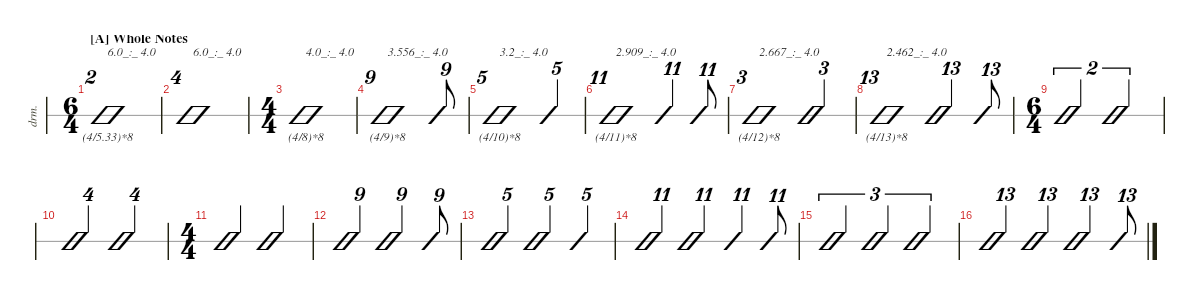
\defaultSystemsLayout 4
\hideDynamics
\bracketExtendMode nobrackets
\otherSystemsTrackNameOrientation horizontal
\track ("Drumkit" "drm.") {defaultSystemsLayout 8 instrument percussion}
\staff {slash}
\articulation defaults
\ts (6 4)
\beaming (8 6 6)
\section ("A" "Whole Notes")
\tempo (120 hide)
\clef neutral
\scale
1.11305
\ks c "Kick (hit) 2".1{tu (2 3) txt "6.0_:_ 4.0" lyrics (0 "(4/5.33)*8") lyrics (1 "") lyrics (2 "") lyrics (3 "") lyrics (4 "") dy mf}
|
\scale
0.962316 "Kick (hit) 2".1{tu (4 6) txt "6.0_:_ 4.0"} |
\ts (4 4)
\beaming (8 2 2 2 2)
\scale
1.11305 "Kick (hit) 2".1{txt "4.0_:_ 4.0" lyrics (0 "(4/8)*8") lyrics (1 "") lyrics (2 "") lyrics (3 "") lyrics (4 "")} |
\scale
0.962316 "Kick (hit) 2".1{tu (9 8) txt "3.556_:_ 4.0" lyrics (0 "(4/9)*8") lyrics (1 "") lyrics (2 "") lyrics (3 "") lyrics (4 "")} "Kick (hit) 2".8{tu (9 8)} |
\scale
0.962316 "Kick (hit) 2".1{tu (5 4) txt "3.2_:_ 4.0" lyrics (0 "(4/10)*8") lyrics (1 "") lyrics (2 "") lyrics (3 "") lyrics (4 "")} "Kick (hit) 2".4{tu (5 4)} |
\scale
0.962316 "Kick (hit) 2".1{tu (11 8) txt "2.909_:_ 4.0" lyrics (0 "(4/11)*8") lyrics (1 "") lyrics (2 "") lyrics (3 "") lyrics (4 "")} "Kick (hit) 2".4{tu (11 8)} "Kick (hit) 2".8{tu (11 8)} |
\scale
0.962316 "Kick (hit) 2".1{tu (3 2) txt "2.667_:_ 4.0" lyrics (0 "(4/12)*8") lyrics (1 "") lyrics (2 "") lyrics (3 "") lyrics (4 "")} "Kick (hit) 2".2{tu (3 2)} |
\scale
0.962316 "Kick (hit) 2".1{tu (13 8) txt "2.462_:_ 4.0" lyrics (0 "(4/13)*8") lyrics (1 "") lyrics (2 "") lyrics (3 "") lyrics (4 "")} "Kick (hit) 2".2{tu (13 8)} "Kick (hit) 2".8{tu (13 8)} |
\ts (6 4)
\beaming (8 6 6)
\scale
1.11305 "Kick (hit) 2".2{tu (2 3)} "Kick (hit) 2".2{tu (2 3)} |
\scale
0.962316 "Kick (hit) 2".2{tu (4 6)} "Kick (hit) 2".2{tu (4 6)} |
\ts (4 4)
\beaming (8 2 2 2 2)
\scale
1.11305 "Kick (hit) 2".2 "Kick (hit) 2".2 |
\scale
0.962316 "Kick (hit) 2".2{tu (9 8)} "Kick (hit) 2".2{tu (9 8)} "Kick (hit) 2".8{tu (9 8)} |
\scale
0.962316 "Kick (hit) 2".2{tu (5 4)} "Kick (hit) 2".2{tu (5 4)} "Kick (hit) 2".4{tu (5 4)} |
\scale
0.962316 "Kick (hit) 2".2{tu (11 8)} "Kick (hit) 2".2{tu (11 8)} "Kick (hit) 2".4{tu (11 8)} "Kick (hit) 2".8{tu (11 8)} |
\scale
0.962316 "Kick (hit) 2".2{tu (3 2)} "Kick (hit) 2".2{tu (3 2)} "Kick (hit) 2".2{tu (3 2)} |
\scale
0.962316 "Kick (hit) 2".2{tu (13 8)} "Kick (hit) 2".2{tu (13 8)} "Kick (hit) 2".2{tu (13 8)} "Kick (hit) 2".8{tu (13 8)}
